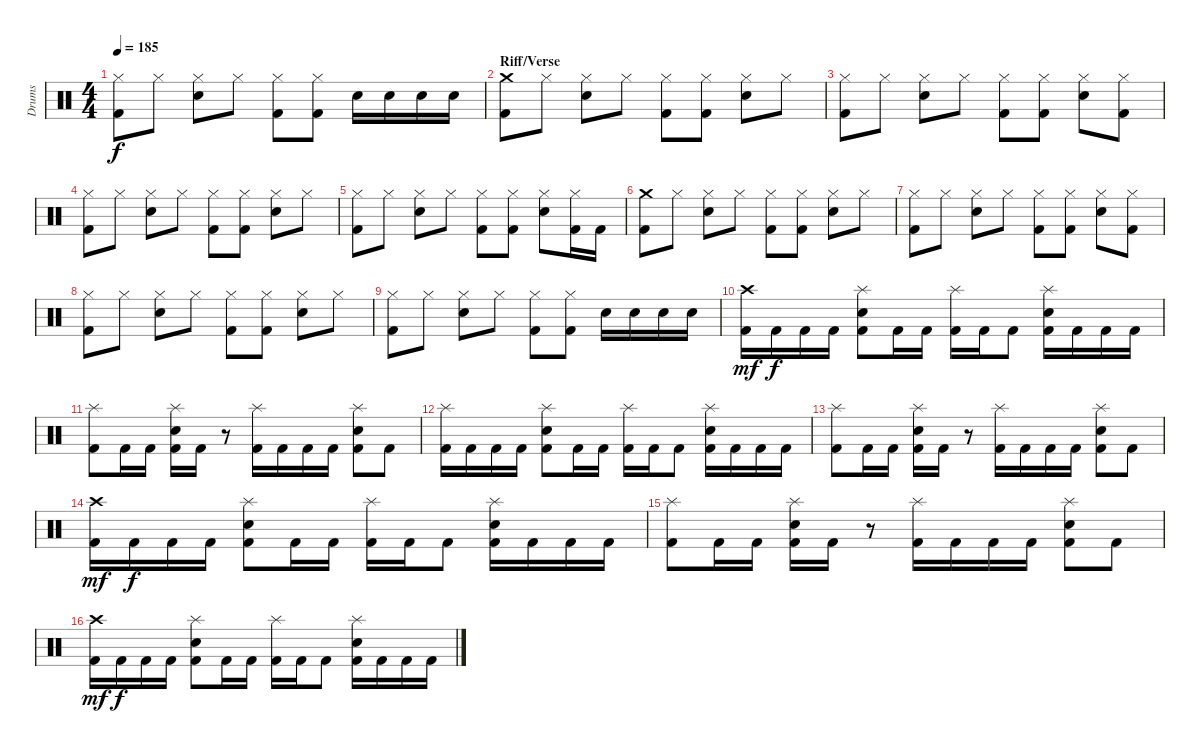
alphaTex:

\track ("Drums" "Drums") {instrument percussion}
\staff {score}
\articulation defaults
\ts (4 4)
\tempo 185
\clef neutral
\ks c
("Kick (hit) 2" "Hi-Hat (closed)").8{dy f} "Hi-Hat (closed)".8 ("Electric Snare (hit)" "Hi-Hat (closed)").8 "Hi-Hat (closed)".8 ("Kick (hit) 2" "Hi-Hat (closed)").8 ("Kick (hit) 2" "Hi-Hat (closed)").8 "Electric Snare (hit)".16 "Electric Snare (hit)".16 "Electric Snare (hit)".16 "Electric Snare (hit)".16 |
\section ("" "Riff/Verse")
("Kick (hit) 2" "Crash medium (hit)").8 "Hi-Hat (closed)".8 ("Electric Snare (hit)" "Hi-Hat (closed)").8 "Hi-Hat (closed)".8 ("Kick (hit) 2" "Hi-Hat (closed)").8 ("Kick (hit) 2" "Hi-Hat (closed)").8 ("Electric Snare (hit)" "Hi-Hat (closed)").8 "Hi-Hat (closed)".8 |
("Kick (hit) 2" "Hi-Hat (closed)").8 "Hi-Hat (closed)".8 ("Electric Snare (hit)" "Hi-Hat (closed)").8 "Hi-Hat (closed)".8 ("Kick (hit) 2" "Hi-Hat (closed)").8 ("Kick (hit) 2" "Hi-Hat (closed)").8 ("Electric Snare (hit)" "Hi-Hat (closed)").8 ("Kick (hit) 2" "Hi-Hat (closed)").8 |
("Kick (hit) 2" "Hi-Hat (closed)").8 "Hi-Hat (closed)".8 ("Electric Snare (hit)" "Hi-Hat (closed)").8 "Hi-Hat (closed)".8 ("Kick (hit) 2" "Hi-Hat (closed)").8 ("Kick (hit) 2" "Hi-Hat (closed)").8 ("Electric Snare (hit)" "Hi-Hat (closed)").8 "Hi-Hat (closed)".8 |
("Kick (hit) 2" "Hi-Hat (closed)").8 "Hi-Hat (closed)".8 ("Electric Snare (hit)" "Hi-Hat (closed)").8 "Hi-Hat (closed)".8 ("Kick (hit) 2" "Hi-Hat (closed)").8 ("Kick (hit) 2" "Hi-Hat (closed)").8 ("Electric Snare (hit)" "Hi-Hat (closed)").8 ("Kick (hit) 2" "Hi-Hat (closed)").16 "Kick (hit) 2".16 |
("Kick (hit) 2" "Crash medium (hit)").8 "Hi-Hat (closed)".8 ("Electric Snare (hit)" "Hi-Hat (closed)").8 "Hi-Hat (closed)".8 ("Kick (hit) 2" "Hi-Hat (closed)").8 ("Kick (hit) 2" "Hi-Hat (closed)").8 ("Electric Snare (hit)" "Hi-Hat (closed)").8 "Hi-Hat (closed)".8 |
("Kick (hit) 2" "Hi-Hat (closed)").8 "Hi-Hat (closed)".8 ("Electric Snare (hit)" "Hi-Hat (closed)").8 "Hi-Hat (closed)".8 ("Kick (hit) 2" "Hi-Hat (closed)").8 ("Kick (hit) 2" "Hi-Hat (closed)").8 ("Electric Snare (hit)" "Hi-Hat (closed)").8 ("Kick (hit) 2" "Hi-Hat (closed)").8 |
("Kick (hit) 2" "Hi-Hat (closed)").8 "Hi-Hat (closed)".8 ("Electric Snare (hit)" "Hi-Hat (closed)").8 "Hi-Hat (closed)".8 ("Kick (hit) 2" "Hi-Hat (closed)").8 ("Kick (hit) 2" "Hi-Hat (closed)").8 ("Electric Snare (hit)" "Hi-Hat (closed)").8 "Hi-Hat (closed)".8 |
("Kick (hit) 2" "Hi-Hat (closed)").8 "Hi-Hat (closed)".8 ("Electric Snare (hit)" "Hi-Hat (closed)").8 "Hi-Hat (closed)".8 ("Kick (hit) 2" "Hi-Hat (closed)").8 ("Kick (hit) 2" "Hi-Hat (closed)").8 "Electric Snare (hit)".16 "Electric Snare (hit)".16 "Electric Snare (hit)".16 "Electric Snare (hit)".16 |
\section ("" "")
("Kick (hit) 2" "Crash high (hit)").16{dy mf} "Kick (hit) 2".16{dy f} "Kick (hit) 2".16 "Kick (hit) 2".16 ("Kick (hit) 2" "Electric Snare (hit)" "Splash (hit)").8 "Kick (hit) 2".16 "Kick (hit) 2".16 ("Kick (hit) 2" "Splash (hit)").16 "Kick (hit) 2".16 "Kick (hit) 2".8 ("Kick (hit) 2" "Electric Snare (hit)" "Splash (hit)").16 "Kick (hit) 2".16 "Kick (hit) 2".16 "Kick (hit) 2".16 |
("Kick (hit) 2" "Splash (hit)").8 "Kick (hit) 2".16 "Kick (hit) 2".16 ("Kick (hit) 2" "Electric Snare (hit)" "Splash (hit)").16 "Kick (hit) 2".16 r.8 ("Kick (hit) 2" "Splash (hit)").16 "Kick (hit) 2".16 "Kick (hit) 2".16 "Kick (hit) 2".16 ("Kick (hit) 2" "Electric Snare (hit)" "Splash (hit)").8 "Kick (hit) 2".8 |
("Kick (hit) 2" "Splash (hit)").16 "Kick (hit) 2".16 "Kick (hit) 2".16 "Kick (hit) 2".16 ("Kick (hit) 2" "Electric Snare (hit)" "Splash (hit)").8 "Kick (hit) 2".16 "Kick (hit) 2".16 ("Kick (hit) 2" "Splash (hit)").16 "Kick (hit) 2".16 "Kick (hit) 2".8 ("Kick (hit) 2" "Electric Snare (hit)" "Splash (hit)").16 "Kick (hit) 2".16 "Kick (hit) 2".16 "Kick (hit) 2".16 |
("Kick (hit) 2" "Splash (hit)").8 "Kick (hit) 2".16 "Kick (hit) 2".16 ("Kick (hit) 2" "Electric Snare (hit)" "Splash (hit)").16 "Kick (hit) 2".16 r.8 ("Kick (hit) 2" "Splash (hit)").16 "Kick (hit) 2".16 "Kick (hit) 2".16 "Kick (hit) 2".16 ("Kick (hit) 2" "Electric Snare (hit)" "Splash (hit)").8 "Kick (hit) 2".8 |
("Kick (hit) 2" "Crash high (hit)").16{dy mf} "Kick (hit) 2".16{dy f} "Kick (hit) 2".16 "Kick (hit) 2".16 ("Kick (hit) 2" "Electric Snare (hit)" "Splash (hit)").8 "Kick (hit) 2".16 "Kick (hit) 2".16 ("Kick (hit) 2" "Splash (hit)").16 "Kick (hit) 2".16 "Kick (hit) 2".8 ("Kick (hit) 2" "Electric Snare (hit)" "Splash (hit)").16 "Kick (hit) 2".16 "Kick (hit) 2".16 "Kick (hit) 2".16 |
("Kick (hit) 2" "Splash (hit)").8 "Kick (hit) 2".16 "Kick (hit) 2".16 ("Kick (hit) 2" "Electric Snare (hit)" "Splash (hit)").16 "Kick (hit) 2".16 r.8 ("Kick (hit) 2" "Splash (hit)").16 "Kick (hit) 2".16 "Kick (hit) 2".16 "Kick (hit) 2".16 ("Kick (hit) 2" "Electric Snare (hit)" "Splash (hit)").8 "Kick (hit) 2".8 |
("Kick (hit) 2" "Crash high (hit)").16{dy mf} "Kick (hit) 2".16{dy f} "Kick (hit) 2".16 "Kick (hit) 2".16 ("Kick (hit) 2" "Electric Snare (hit)" "Splash (hit)").8 "Kick (hit) 2".16 "Kick (hit) 2".16 ("Kick (hit) 2" "Splash (hit)").16 "Kick (hit) 2".16 "Kick (hit) 2".8 ("Kick (hit) 2" "Electric Snare (hit)" "Splash (hit)").16 "Kick (hit) 2".16 "Kick (hit) 2".16 "Kick (hit) 2".16
